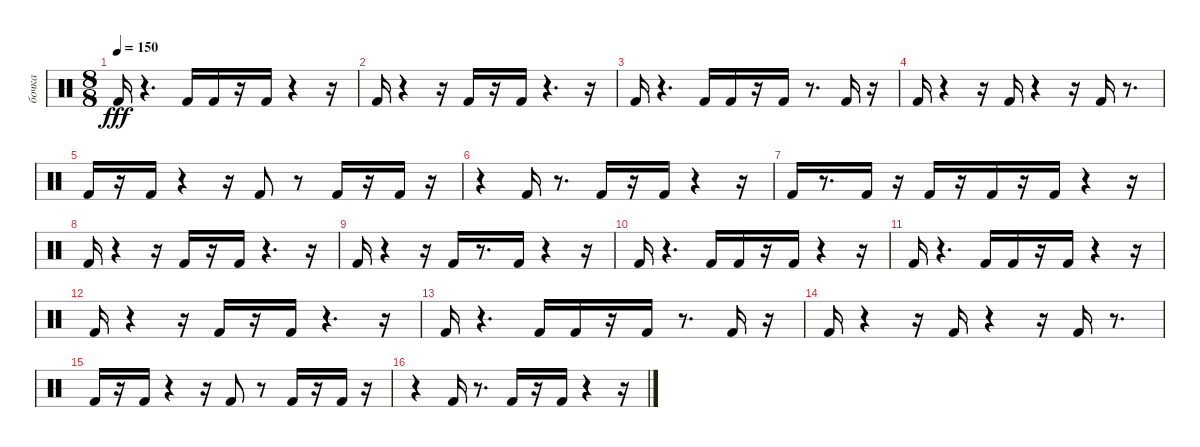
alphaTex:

\track ("бочка" "бочка") {instrument percussion}
\staff {score}
\articulation defaults
\ts (8 8)
\tempo 150
\clef neutral
\ks c "Kick (hit) 2".16{dy fff}
r.4{d} "Kick (hit) 2".16 "Kick (hit) 2".16 r.16 "Kick (hit) 2".16 r.4 r.16 |
"Kick (hit) 2".16 r.4 r.16 "Kick (hit) 2".16 r.16 "Kick (hit) 2".16 r.4{d} r.16 |
"Kick (hit) 2".16 r.4{d} "Kick (hit) 2".16 "Kick (hit) 2".16 r.16 "Kick (hit) 2".16 r.8{d} "Kick (hit) 2".16 r.16 |
"Kick (hit) 2".16 r.4 r.16 "Kick (hit) 2".16 r.4 r.16 "Kick (hit) 2".16 r.8{d} |
"Kick (hit) 2".16 r.16 "Kick (hit) 2".16 r.4 r.16 "Kick (hit) 2".8 r.8 "Kick (hit) 2".16 r.16 "Kick (hit) 2".16 r.16 |
r.4 "Kick (hit) 2".16 r.8{d} "Kick (hit) 2".16 r.16 "Kick (hit) 2".16 r.4 r.16 |
"Kick (hit) 2".16 r.8{d} "Kick (hit) 2".16 r.16 "Kick (hit) 2".16 r.16 "Kick (hit) 2".16 r.16 "Kick (hit) 2".16 r.4 r.16 |
"Kick (hit) 2".16 r.4 r.16 "Kick (hit) 2".16 r.16 "Kick (hit) 2".16 r.4{d} r.16 |
"Kick (hit) 2".16 r.4 r.16 "Kick (hit) 2".16 r.8{d} "Kick (hit) 2".16 r.4 r.16 |
"Kick (hit) 2".16 r.4{d} "Kick (hit) 2".16 "Kick (hit) 2".16 r.16 "Kick (hit) 2".16 r.4 r.16 |
"Kick (hit) 2".16 r.4{d} "Kick (hit) 2".16 "Kick (hit) 2".16 r.16 "Kick (hit) 2".16 r.4 r.16 |
"Kick (hit) 2".16 r.4 r.16 "Kick (hit) 2".16 r.16 "Kick (hit) 2".16 r.4{d} r.16 |
"Kick (hit) 2".16 r.4{d} "Kick (hit) 2".16 "Kick (hit) 2".16 r.16 "Kick (hit) 2".16 r.8{d} "Kick (hit) 2".16 r.16 |
"Kick (hit) 2".16 r.4 r.16 "Kick (hit) 2".16 r.4 r.16 "Kick (hit) 2".16 r.8{d} |
"Kick (hit) 2".16 r.16 "Kick (hit) 2".16 r.4 r.16 "Kick (hit) 2".8 r.8 "Kick (hit) 2".16 r.16 "Kick (hit) 2".16 r.16 |
r.4 "Kick (hit) 2".16 r.8{d} "Kick (hit) 2".16 r.16 "Kick (hit) 2".16 r.4 r.16
